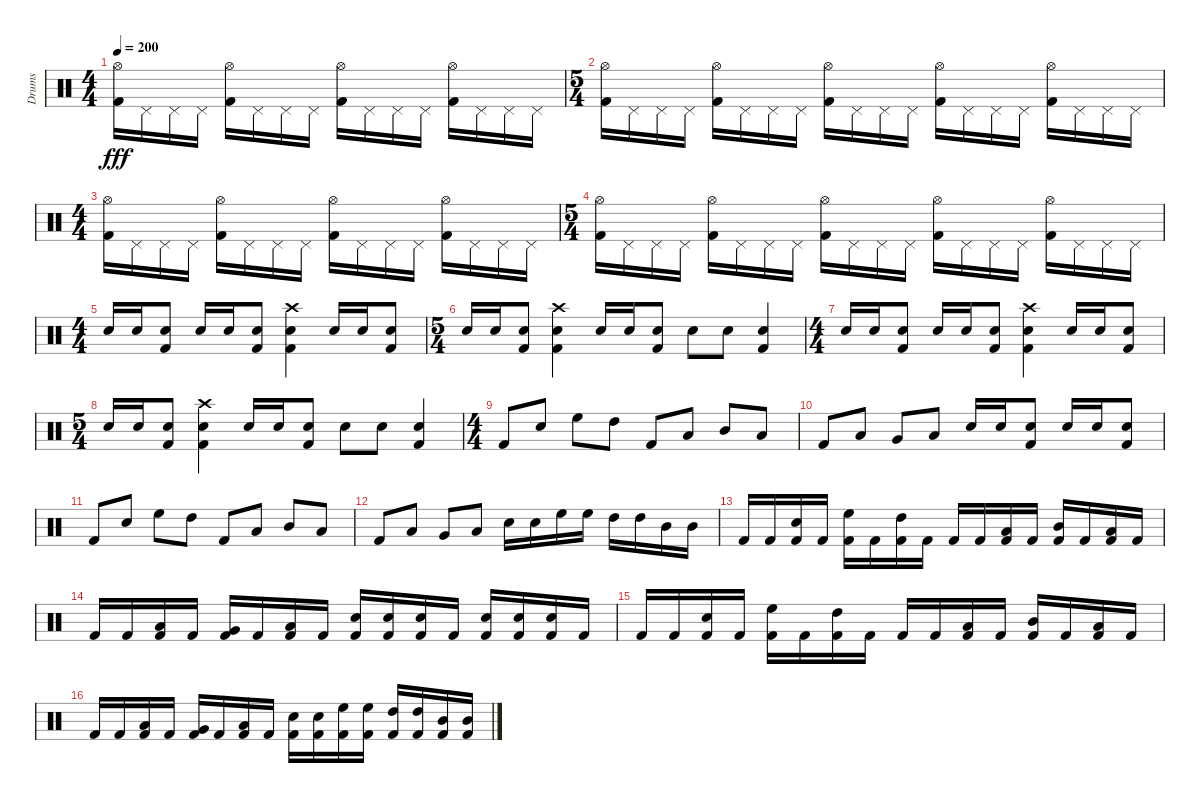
\track ("Drums" "Drums") {instrument percussion}
\staff {score}
\articulation defaults
\ts (4 4)
\tempo 200
\clef neutral
\ks c
("Hi-Hat (open)" "Kick (hit) 2").16{dy fff} "Pedal Hi-Hat (hit)".16 "Pedal Hi-Hat (hit)".16 "Pedal Hi-Hat (hit)".16 ("Hi-Hat (open)" "Kick (hit) 2").16 "Pedal Hi-Hat (hit)".16 "Pedal Hi-Hat (hit)".16 "Pedal Hi-Hat (hit)".16 ("Hi-Hat (open)" "Kick (hit) 2").16 "Pedal Hi-Hat (hit)".16 "Pedal Hi-Hat (hit)".16 "Pedal Hi-Hat (hit)".16 ("Hi-Hat (open)" "Kick (hit) 2").16 "Pedal Hi-Hat (hit)".16 "Pedal Hi-Hat (hit)".16 "Pedal Hi-Hat (hit)".16 |
\ts (5 4)
("Hi-Hat (open)" "Kick (hit) 2").16 "Pedal Hi-Hat (hit)".16 "Pedal Hi-Hat (hit)".16 "Pedal Hi-Hat (hit)".16 ("Hi-Hat (open)" "Kick (hit) 2").16 "Pedal Hi-Hat (hit)".16 "Pedal Hi-Hat (hit)".16 "Pedal Hi-Hat (hit)".16 ("Hi-Hat (open)" "Kick (hit) 2").16 "Pedal Hi-Hat (hit)".16 "Pedal Hi-Hat (hit)".16 "Pedal Hi-Hat (hit)".16 ("Hi-Hat (open)" "Kick (hit) 2").16 "Pedal Hi-Hat (hit)".16 "Pedal Hi-Hat (hit)".16 "Pedal Hi-Hat (hit)".16 ("Hi-Hat (open)" "Kick (hit) 2").16 "Pedal Hi-Hat (hit)".16 "Pedal Hi-Hat (hit)".16 "Pedal Hi-Hat (hit)".16 |
\ts (4 4)
("Hi-Hat (open)" "Kick (hit) 2").16 "Pedal Hi-Hat (hit)".16 "Pedal Hi-Hat (hit)".16 "Pedal Hi-Hat (hit)".16 ("Hi-Hat (open)" "Kick (hit) 2").16 "Pedal Hi-Hat (hit)".16 "Pedal Hi-Hat (hit)".16 "Pedal Hi-Hat (hit)".16 ("Hi-Hat (open)" "Kick (hit) 2").16 "Pedal Hi-Hat (hit)".16 "Pedal Hi-Hat (hit)".16 "Pedal Hi-Hat (hit)".16 ("Hi-Hat (open)" "Kick (hit) 2").16 "Pedal Hi-Hat (hit)".16 "Pedal Hi-Hat (hit)".16 "Pedal Hi-Hat (hit)".16 |
\ts (5 4)
("Hi-Hat (open)" "Kick (hit) 2").16 "Pedal Hi-Hat (hit)".16 "Pedal Hi-Hat (hit)".16 "Pedal Hi-Hat (hit)".16 ("Hi-Hat (open)" "Kick (hit) 2").16 "Pedal Hi-Hat (hit)".16 "Pedal Hi-Hat (hit)".16 "Pedal Hi-Hat (hit)".16 ("Hi-Hat (open)" "Kick (hit) 2").16 "Pedal Hi-Hat (hit)".16 "Pedal Hi-Hat (hit)".16 "Pedal Hi-Hat (hit)".16 ("Hi-Hat (open)" "Kick (hit) 2").16 "Pedal Hi-Hat (hit)".16 "Pedal Hi-Hat (hit)".16 "Pedal Hi-Hat (hit)".16 ("Hi-Hat (open)" "Kick (hit) 2").16 "Pedal Hi-Hat (hit)".16 "Pedal Hi-Hat (hit)".16 "Pedal Hi-Hat (hit)".16 |
\ts (4 4)
"Snare (hit) 2".16 "Snare (hit) 2".16 ("Snare (hit) 2" "Kick (hit) 2").8 "Snare (hit) 2".16 "Snare (hit) 2".16 ("Snare (hit) 2" "Kick (hit) 2").8 ("Crash high (hit)" "Snare (hit) 2" "Kick (hit) 2").4 "Snare (hit) 2".16 "Snare (hit) 2".16 ("Snare (hit) 2" "Kick (hit) 2").8 |
\ts (5 4)
"Snare (hit) 2".16 "Snare (hit) 2".16 ("Snare (hit) 2" "Kick (hit) 2").8 ("Crash high (hit)" "Snare (hit) 2" "Kick (hit) 2").4 "Snare (hit) 2".16 "Snare (hit) 2".16 ("Snare (hit) 2" "Kick (hit) 2").8 "Snare (hit) 2".8 "Snare (hit) 2".8 ("Snare (hit) 2" "Kick (hit) 2").4 |
\ts (4 4)
"Snare (hit) 2".16 "Snare (hit) 2".16 ("Snare (hit) 2" "Kick (hit) 2").8 "Snare (hit) 2".16 "Snare (hit) 2".16 ("Snare (hit) 2" "Kick (hit) 2").8 ("Crash high (hit)" "Snare (hit) 2" "Kick (hit) 2").4 "Snare (hit) 2".16 "Snare (hit) 2".16 ("Snare (hit) 2" "Kick (hit) 2").8 |
\ts (5 4)
"Snare (hit) 2".16 "Snare (hit) 2".16 ("Snare (hit) 2" "Kick (hit) 2").8 ("Crash high (hit)" "Snare (hit) 2" "Kick (hit) 2").4 "Snare (hit) 2".16 "Snare (hit) 2".16 ("Snare (hit) 2" "Kick (hit) 2").8 "Snare (hit) 2".8 "Snare (hit) 2".8 ("Snare (hit) 2" "Kick (hit) 2").4 |
\ts (4 4)
"Kick (hit) 2".8 "Snare (hit) 2".8 "High Floor Tom (hit)".8 "High Tom (hit)".8 "Kick (hit) 2".8 "Low Tom (hit)".8 "Mid Tom (hit)".8 "Low Tom (hit)".8 |
"Kick (hit) 2".8 "Low Floor Tom (hit)".8 "Very Low Tom (hit)".8 "Low Floor Tom (hit)".8 "Snare (hit) 2".16 "Snare (hit) 2".16 ("Snare (hit) 2" "Kick (hit) 2").8 "Snare (hit) 2".16 "Snare (hit) 2".16 ("Snare (hit) 2" "Kick (hit) 2").8 |
"Kick (hit) 2".8 "Snare (hit) 2".8 "High Floor Tom (hit)".8 "High Tom (hit)".8 "Kick (hit) 2".8 "Low Tom (hit)".8 "Mid Tom (hit)".8 "Low Tom (hit)".8 |
"Kick (hit) 2".8 "Low Floor Tom (hit)".8 "Very Low Tom (hit)".8 "Low Floor Tom (hit)".8 "Snare (hit) 2".16 "Snare (hit) 2".16 "High Floor Tom (hit)".16 "High Floor Tom (hit)".16 "High Tom (hit)".16 "High Tom (hit)".16 "Mid Tom (hit)".16 "Mid Tom (hit)".16 |
"Kick (hit) 2".16 "Kick (hit) 2".16 ("Snare (hit) 2" "Kick (hit) 2").16 "Kick (hit) 2".16 ("High Floor Tom (hit)" "Kick (hit) 2").16 "Kick (hit) 2".16 ("High Tom (hit)" "Kick (hit) 2").16 "Kick (hit) 2".16 "Kick (hit) 2".16 "Kick (hit) 2".16 ("Low Tom (hit)" "Kick (hit) 2").16 "Kick (hit) 2".16 ("Mid Tom (hit)" "Kick (hit) 2").16 "Kick (hit) 2".16 ("Low Tom (hit)" "Kick (hit) 2").16 "Kick (hit) 2".16 |
"Kick (hit) 2".16 "Kick (hit) 2".16 ("Low Floor Tom (hit)" "Kick (hit) 2").16 "Kick (hit) 2".16 ("Very Low Tom (hit)" "Kick (hit) 2").16 "Kick (hit) 2".16 ("Low Floor Tom (hit)" "Kick (hit) 2").16 "Kick (hit) 2".16 ("Snare (hit) 2" "Kick (hit) 2").16 ("Snare (hit) 2" "Kick (hit) 2").16 ("Snare (hit) 2" "Kick (hit) 2").16 "Kick (hit) 2".16 ("Snare (hit) 2" "Kick (hit) 2").16 ("Snare (hit) 2" "Kick (hit) 2").16 ("Snare (hit) 2" "Kick (hit) 2").16 "Kick (hit) 2".16 |
"Kick (hit) 2".16 "Kick (hit) 2".16 ("Snare (hit) 2" "Kick (hit) 2").16 "Kick (hit) 2".16 ("High Floor Tom (hit)" "Kick (hit) 2").16 "Kick (hit) 2".16 ("High Tom (hit)" "Kick (hit) 2").16 "Kick (hit) 2".16 "Kick (hit) 2".16 "Kick (hit) 2".16 ("Low Tom (hit)" "Kick (hit) 2").16 "Kick (hit) 2".16 ("Mid Tom (hit)" "Kick (hit) 2").16 "Kick (hit) 2".16 ("Low Tom (hit)" "Kick (hit) 2").16 "Kick (hit) 2".16 |
"Kick (hit) 2".16 "Kick (hit) 2".16 ("Low Floor Tom (hit)" "Kick (hit) 2").16 "Kick (hit) 2".16 ("Very Low Tom (hit)" "Kick (hit) 2").16 "Kick (hit) 2".16 ("Low Floor Tom (hit)" "Kick (hit) 2").16 "Kick (hit) 2".16 ("Snare (hit) 2" "Kick (hit) 2").16 ("Snare (hit) 2" "Kick (hit) 2").16 ("High Floor Tom (hit)" "Kick (hit) 2").16 ("High Floor Tom (hit)" "Kick (hit) 2").16 ("High Tom (hit)" "Kick (hit) 2").16 ("High Tom (hit)" "Kick (hit) 2").16 ("Mid Tom (hit)" "Kick (hit) 2").16 ("Mid Tom (hit)" "Kick (hit) 2").16
